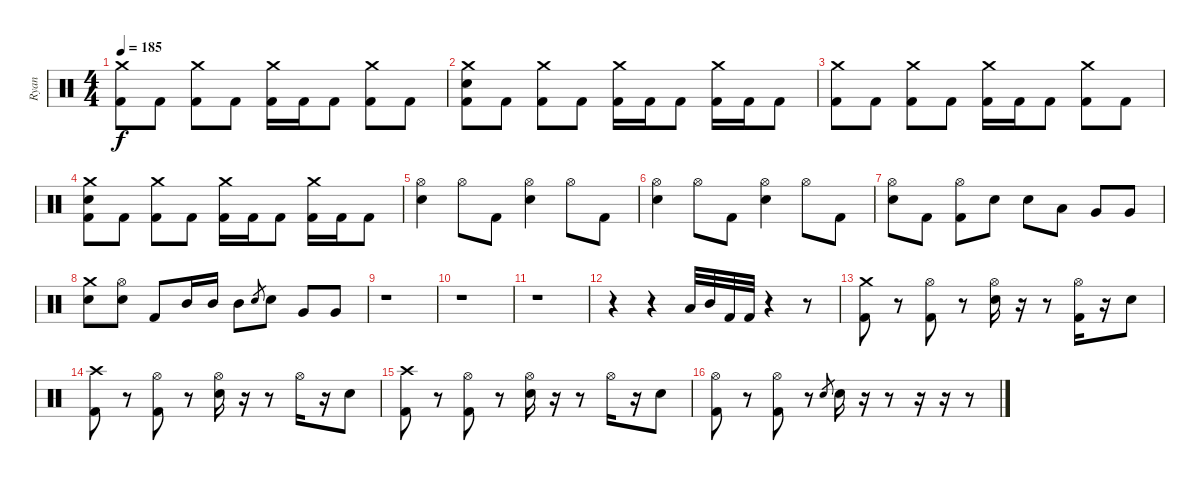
\track ("Ryan" "Ryan") {instrument percussion}
\staff {score}
\articulation defaults
\ts (4 4)
\tempo 185
\clef neutral
\ks c
("Crash medium (hit)" "Kick (hit) 2").8{dy f} "Kick (hit) 2".8 ("Crash medium (hit)" "Kick (hit) 2").8 "Kick (hit) 2".8 ("Crash medium (hit)" "Kick (hit) 2").16 "Kick (hit) 2".16 "Kick (hit) 2".8 ("Crash medium (hit)" "Kick (hit) 2").8 "Kick (hit) 2".8 |
("Crash medium (hit)" "Electric Snare (hit)" "Kick (hit) 2").8 "Kick (hit) 2".8 ("Crash medium (hit)" "Kick (hit) 2").8 "Kick (hit) 2".8 ("Crash medium (hit)" "Kick (hit) 2").16 "Kick (hit) 2".16 "Kick (hit) 2".8 ("Crash medium (hit)" "Kick (hit) 2").16 "Kick (hit) 2".16 "Kick (hit) 2".8 |
("Crash medium (hit)" "Kick (hit) 2").8 "Kick (hit) 2".8 ("Crash medium (hit)" "Kick (hit) 2").8 "Kick (hit) 2".8 ("Crash medium (hit)" "Kick (hit) 2").16 "Kick (hit) 2".16 "Kick (hit) 2".8 ("Crash medium (hit)" "Kick (hit) 2").8 "Kick (hit) 2".8 |
("Crash medium (hit)" "Electric Snare (hit)" "Kick (hit) 2").8 "Kick (hit) 2".8 ("Crash medium (hit)" "Kick (hit) 2").8 "Kick (hit) 2".8 ("Crash medium (hit)" "Kick (hit) 2").16 "Kick (hit) 2".16 "Kick (hit) 2".8 ("Crash medium (hit)" "Kick (hit) 2").16 "Kick (hit) 2".16 "Kick (hit) 2".8 |
("Hi-Hat (open)" "Electric Snare (hit)").4 "Hi-Hat (open)".8 "Kick (hit) 2".8 ("Hi-Hat (open)" "Electric Snare (hit)").4 "Hi-Hat (open)".8 "Kick (hit) 2".8 |
("Hi-Hat (open)" "Electric Snare (hit)").4 "Hi-Hat (open)".8 "Kick (hit) 2".8 ("Hi-Hat (open)" "Electric Snare (hit)").4 "Hi-Hat (open)".8 "Kick (hit) 2".8 |
("Hi-Hat (open)" "Electric Snare (hit)").8 "Kick (hit) 2".8 ("Hi-Hat (open)" "Kick (hit) 2").8 "Electric Snare (hit)".8 "Electric Snare (hit)".8 "Low Tom (hit)".8 "Very Low Tom (hit)".8 "Very Low Tom (hit)".8 |
("Crash medium (hit)" "Electric Snare (hit)").8 ("Hi-Hat (open)" "Electric Snare (hit)").8 "Kick (hit) 2".8 "Mid Tom (hit)".16 "Mid Tom (hit)".16 "Mid Tom (hit)".8 "Electric Snare (hit)".8{gr} "Electric Snare (hit)".8 "Very Low Tom (hit)".8 "Very Low Tom (hit)".8 |
r.1 |
r.1 |
r.1 |
r.4 r.4 "Low Tom (hit)".32 "Mid Tom (hit)".32 "Kick (hit) 2".32 "Kick (hit) 2".32 r.4 r.8 |
("Crash medium (hit)" "Kick (hit) 2").8 r.8 ("Hi-Hat (open)" "Kick (hit) 2").8 r.8 ("Hi-Hat (open)" "Electric Snare (hit)").16 r.16 r.8 ("Hi-Hat (open)" "Kick (hit) 2").16 r.16 "Electric Snare (hit)".8 |
("Crash high (hit)" "Kick (hit) 2").8 r.8 ("Hi-Hat (open)" "Kick (hit) 2").8 r.8 ("Hi-Hat (open)" "Electric Snare (hit)").16 r.16 r.8 "Hi-Hat (open)".16 r.16 "Electric Snare (hit)".8 |
("Crash high (hit)" "Kick (hit) 2").8 r.8 ("Hi-Hat (open)" "Kick (hit) 2").8 r.8 ("Hi-Hat (open)" "Electric Snare (hit)").16 r.16 r.8 "Hi-Hat (open)".16 r.16 "Electric Snare (hit)".8 |
("Hi-Hat (open)" "Kick (hit) 2").8 r.8 ("Hi-Hat (open)" "Kick (hit) 2").8 r.8 "Electric Snare (hit)".8{gr} "Electric Snare (hit)".16 r.16 r.8 r.16 r.16 r.8
